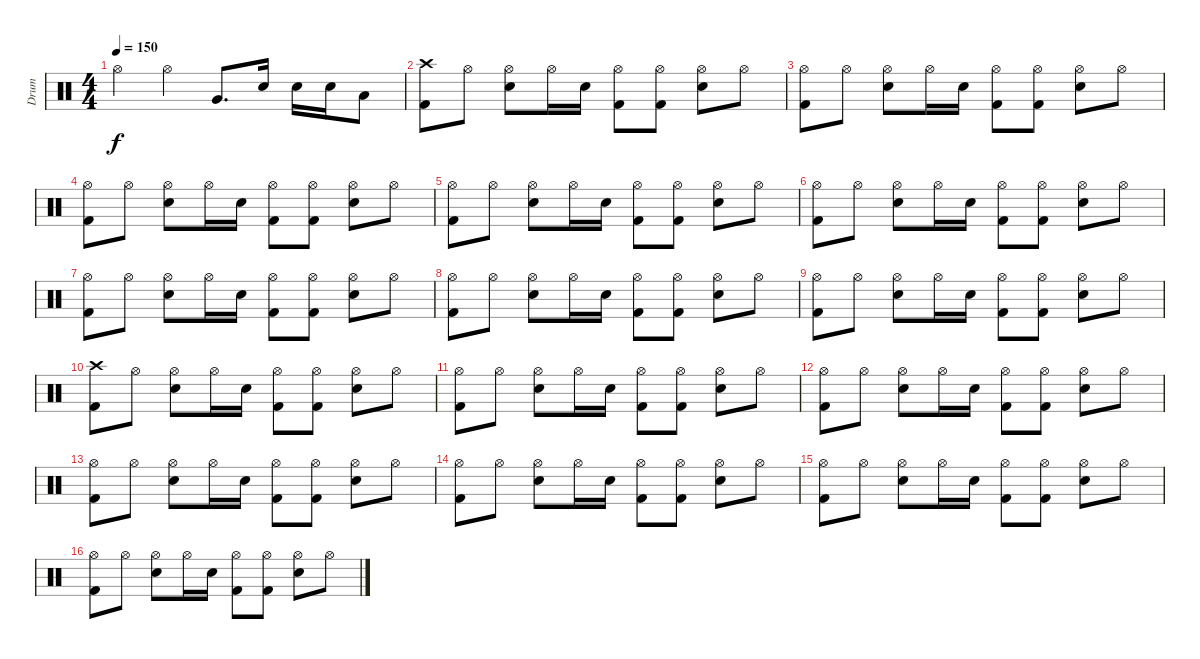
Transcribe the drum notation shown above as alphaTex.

\track ("Drum" "Drum") {instrument percussion}
\staff {score}
\articulation defaults
\ts (4 4)
\tempo 150
\clef neutral
\ks c "Hi-Hat (open)".4{dy f} "Hi-Hat (open)".4 "Very Low Tom (hit)".8{d} "Snare (hit) 2".16 "Snare (hit) 2".16 "Snare (hit) 2".16 "Low Tom (hit)".8
|
("Crash high (hit)" "Kick (hit) 2").8 "Hi-Hat (open)".8 ("Hi-Hat (open)" "Snare (hit) 2").8 "Hi-Hat (open)".16 "Snare (hit) 2".16 ("Hi-Hat (open)" "Kick (hit) 2").8 ("Hi-Hat (open)" "Kick (hit) 2").8 ("Hi-Hat (open)" "Snare (hit) 2").8 "Hi-Hat (open)".8 |
("Hi-Hat (open)" "Kick (hit) 2").8 "Hi-Hat (open)".8 ("Hi-Hat (open)" "Snare (hit) 2").8 "Hi-Hat (open)".16 "Snare (hit) 2".16 ("Hi-Hat (open)" "Kick (hit) 2").8 ("Hi-Hat (open)" "Kick (hit) 2").8 ("Hi-Hat (open)" "Snare (hit) 2").8 "Hi-Hat (open)".8 |
("Hi-Hat (open)" "Kick (hit) 2").8 "Hi-Hat (open)".8 ("Hi-Hat (open)" "Snare (hit) 2").8 "Hi-Hat (open)".16 "Snare (hit) 2".16 ("Hi-Hat (open)" "Kick (hit) 2").8 ("Hi-Hat (open)" "Kick (hit) 2").8 ("Hi-Hat (open)" "Snare (hit) 2").8 "Hi-Hat (open)".8 |
("Hi-Hat (open)" "Kick (hit) 2").8 "Hi-Hat (open)".8 ("Hi-Hat (open)" "Snare (hit) 2").8 "Hi-Hat (open)".16 "Snare (hit) 2".16 ("Hi-Hat (open)" "Kick (hit) 2").8 ("Hi-Hat (open)" "Kick (hit) 2").8 ("Hi-Hat (open)" "Snare (hit) 2").8 "Hi-Hat (open)".8 |
("Hi-Hat (open)" "Kick (hit) 2").8 "Hi-Hat (open)".8 ("Hi-Hat (open)" "Snare (hit) 2").8 "Hi-Hat (open)".16 "Snare (hit) 2".16 ("Hi-Hat (open)" "Kick (hit) 2").8 ("Hi-Hat (open)" "Kick (hit) 2").8 ("Hi-Hat (open)" "Snare (hit) 2").8 "Hi-Hat (open)".8 |
("Hi-Hat (open)" "Kick (hit) 2").8 "Hi-Hat (open)".8 ("Hi-Hat (open)" "Snare (hit) 2").8 "Hi-Hat (open)".16 "Snare (hit) 2".16 ("Hi-Hat (open)" "Kick (hit) 2").8 ("Hi-Hat (open)" "Kick (hit) 2").8 ("Hi-Hat (open)" "Snare (hit) 2").8 "Hi-Hat (open)".8 |
("Hi-Hat (open)" "Kick (hit) 2").8 "Hi-Hat (open)".8 ("Hi-Hat (open)" "Snare (hit) 2").8 "Hi-Hat (open)".16 "Snare (hit) 2".16 ("Hi-Hat (open)" "Kick (hit) 2").8 ("Hi-Hat (open)" "Kick (hit) 2").8 ("Hi-Hat (open)" "Snare (hit) 2").8 "Hi-Hat (open)".8 |
("Hi-Hat (open)" "Kick (hit) 2").8 "Hi-Hat (open)".8 ("Hi-Hat (open)" "Snare (hit) 2").8 "Hi-Hat (open)".16 "Snare (hit) 2".16 ("Hi-Hat (open)" "Kick (hit) 2").8 ("Hi-Hat (open)" "Kick (hit) 2").8 ("Hi-Hat (open)" "Snare (hit) 2").8 "Hi-Hat (open)".8 |
("Crash high (hit)" "Kick (hit) 2").8 "Hi-Hat (open)".8 ("Hi-Hat (open)" "Snare (hit) 2").8 "Hi-Hat (open)".16 "Snare (hit) 2".16 ("Hi-Hat (open)" "Kick (hit) 2").8 ("Hi-Hat (open)" "Kick (hit) 2").8 ("Hi-Hat (open)" "Snare (hit) 2").8 "Hi-Hat (open)".8 |
("Hi-Hat (open)" "Kick (hit) 2").8 "Hi-Hat (open)".8 ("Hi-Hat (open)" "Snare (hit) 2").8 "Hi-Hat (open)".16 "Snare (hit) 2".16 ("Hi-Hat (open)" "Kick (hit) 2").8 ("Hi-Hat (open)" "Kick (hit) 2").8 ("Hi-Hat (open)" "Snare (hit) 2").8 "Hi-Hat (open)".8 |
("Hi-Hat (open)" "Kick (hit) 2").8 "Hi-Hat (open)".8 ("Hi-Hat (open)" "Snare (hit) 2").8 "Hi-Hat (open)".16 "Snare (hit) 2".16 ("Hi-Hat (open)" "Kick (hit) 2").8 ("Hi-Hat (open)" "Kick (hit) 2").8 ("Hi-Hat (open)" "Snare (hit) 2").8 "Hi-Hat (open)".8 |
("Hi-Hat (open)" "Kick (hit) 2").8 "Hi-Hat (open)".8 ("Hi-Hat (open)" "Snare (hit) 2").8 "Hi-Hat (open)".16 "Snare (hit) 2".16 ("Hi-Hat (open)" "Kick (hit) 2").8 ("Hi-Hat (open)" "Kick (hit) 2").8 ("Hi-Hat (open)" "Snare (hit) 2").8 "Hi-Hat (open)".8 |
("Hi-Hat (open)" "Kick (hit) 2").8 "Hi-Hat (open)".8 ("Hi-Hat (open)" "Snare (hit) 2").8 "Hi-Hat (open)".16 "Snare (hit) 2".16 ("Hi-Hat (open)" "Kick (hit) 2").8 ("Hi-Hat (open)" "Kick (hit) 2").8 ("Hi-Hat (open)" "Snare (hit) 2").8 "Hi-Hat (open)".8 |
("Hi-Hat (open)" "Kick (hit) 2").8 "Hi-Hat (open)".8 ("Hi-Hat (open)" "Snare (hit) 2").8 "Hi-Hat (open)".16 "Snare (hit) 2".16 ("Hi-Hat (open)" "Kick (hit) 2").8 ("Hi-Hat (open)" "Kick (hit) 2").8 ("Hi-Hat (open)" "Snare (hit) 2").8 "Hi-Hat (open)".8 |
("Hi-Hat (open)" "Kick (hit) 2").8 "Hi-Hat (open)".8 ("Hi-Hat (open)" "Snare (hit) 2").8 "Hi-Hat (open)".16 "Snare (hit) 2".16 ("Hi-Hat (open)" "Kick (hit) 2").8 ("Hi-Hat (open)" "Kick (hit) 2").8 ("Hi-Hat (open)" "Snare (hit) 2").8 "Hi-Hat (open)".8
